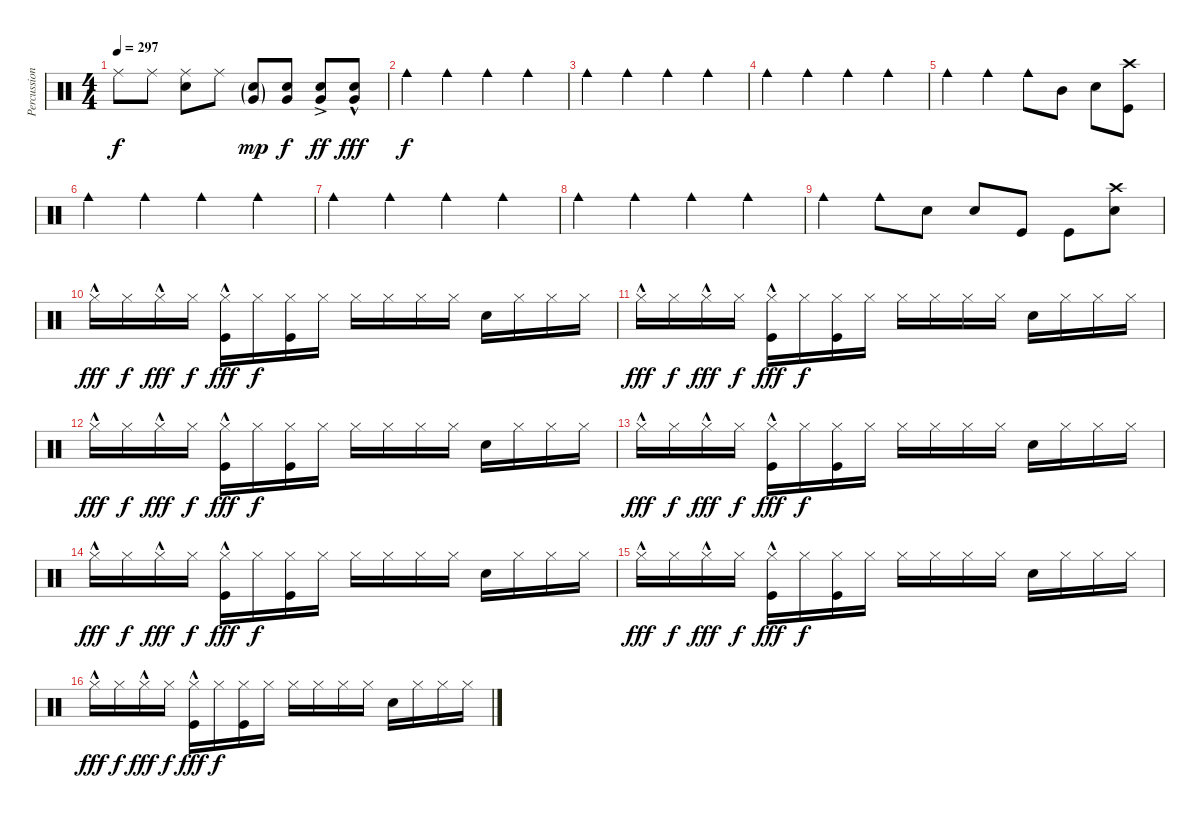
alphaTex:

\track ("Percussioni" "Percussion") {instrument percussion}
\staff {score}
\articulation defaults
\ts (4 4)
\tempo 297
\clef neutral
\ks c "Ride (middle)".8{dy f} "Ride (middle)".8
("Ride (middle)" "Snare (hit) 2").8 "Ride (middle)".8 ("Snare (hit) 2"{g} "Very Low Tom (hit)"{g}).8{dy mp} ("Snare (hit) 2" "Very Low Tom (hit)").8{dy f} ("Snare (hit) 2"{ac} "Very Low Tom (hit)"{ac}).8{dy ff} ("Snare (hit) 2"{hac} "Very Low Tom (hit)"{hac}).8{dy fff} |
"Cowbell medium (hit)".4{dy f} "Cowbell medium (hit)".4 "Cowbell medium (hit)".4 "Cowbell medium (hit)".4 |
"Cowbell medium (hit)".4 "Cowbell medium (hit)".4 "Cowbell medium (hit)".4 "Cowbell medium (hit)".4 |
"Cowbell medium (hit)".4 "Cowbell medium (hit)".4 "Cowbell medium (hit)".4 "Cowbell medium (hit)".4 |
"Cowbell medium (hit)".4 "Cowbell medium (hit)".4 "Cowbell medium (hit)".8 "Mid Tom (hit)".8 "Snare (hit) 2".8 ("Kick (hit)" "Crash high (hit)").8 |
"Cowbell medium (hit)".4 "Cowbell medium (hit)".4 "Cowbell medium (hit)".4 "Cowbell medium (hit)".4 |
"Cowbell medium (hit)".4 "Cowbell medium (hit)".4 "Cowbell medium (hit)".4 "Cowbell medium (hit)".4 |
"Cowbell medium (hit)".4 "Cowbell medium (hit)".4 "Cowbell medium (hit)".4 "Cowbell medium (hit)".4 |
"Cowbell medium (hit)".4 "Cowbell medium (hit)".8 "Snare (hit) 2".8 "Snare (hit) 2".8 "Kick (hit)".8 "Kick (hit)".8 ("Snare (hit) 2" "Crash high (hit)").8 |
"Hi-Hat (closed)"{hac}.16{dy fff} "Hi-Hat (closed)".16{dy f} "Hi-Hat (closed)"{hac}.16{dy fff} "Hi-Hat (closed)".16{dy f} ("Hi-Hat (closed)"{hac} "Kick (hit)").16{dy fff} "Hi-Hat (closed)".16{dy f} ("Hi-Hat (closed)" "Kick (hit)").16 "Hi-Hat (closed)".16 "Hi-Hat (closed)".16 "Hi-Hat (closed)".16 "Hi-Hat (closed)".16 "Hi-Hat (closed)".16 "Snare (hit) 2".16 "Hi-Hat (closed)".16 "Hi-Hat (closed)".16 "Hi-Hat (closed)".16 |
"Hi-Hat (closed)"{hac}.16{dy fff} "Hi-Hat (closed)".16{dy f} "Hi-Hat (closed)"{hac}.16{dy fff} "Hi-Hat (closed)".16{dy f} ("Hi-Hat (closed)"{hac} "Kick (hit)").16{dy fff} "Hi-Hat (closed)".16{dy f} ("Hi-Hat (closed)" "Kick (hit)").16 "Hi-Hat (closed)".16 "Hi-Hat (closed)".16 "Hi-Hat (closed)".16 "Hi-Hat (closed)".16 "Hi-Hat (closed)".16 "Snare (hit) 2".16 "Hi-Hat (closed)".16 "Hi-Hat (closed)".16 "Hi-Hat (closed)".16 |
"Hi-Hat (closed)"{hac}.16{dy fff} "Hi-Hat (closed)".16{dy f} "Hi-Hat (closed)"{hac}.16{dy fff} "Hi-Hat (closed)".16{dy f} ("Hi-Hat (closed)"{hac} "Kick (hit)").16{dy fff} "Hi-Hat (closed)".16{dy f} ("Hi-Hat (closed)" "Kick (hit)").16 "Hi-Hat (closed)".16 "Hi-Hat (closed)".16 "Hi-Hat (closed)".16 "Hi-Hat (closed)".16 "Hi-Hat (closed)".16 "Snare (hit) 2".16 "Hi-Hat (closed)".16 "Hi-Hat (closed)".16 "Hi-Hat (closed)".16 |
"Hi-Hat (closed)"{hac}.16{dy fff} "Hi-Hat (closed)".16{dy f} "Hi-Hat (closed)"{hac}.16{dy fff} "Hi-Hat (closed)".16{dy f} ("Hi-Hat (closed)"{hac} "Kick (hit)").16{dy fff} "Hi-Hat (closed)".16{dy f} ("Hi-Hat (closed)" "Kick (hit)").16 "Hi-Hat (closed)".16 "Hi-Hat (closed)".16 "Hi-Hat (closed)".16 "Hi-Hat (closed)".16 "Hi-Hat (closed)".16 "Snare (hit) 2".16 "Hi-Hat (closed)".16 "Hi-Hat (closed)".16 "Hi-Hat (closed)".16 |
"Hi-Hat (closed)"{hac}.16{dy fff} "Hi-Hat (closed)".16{dy f} "Hi-Hat (closed)"{hac}.16{dy fff} "Hi-Hat (closed)".16{dy f} ("Hi-Hat (closed)"{hac} "Kick (hit)").16{dy fff} "Hi-Hat (closed)".16{dy f} ("Hi-Hat (closed)" "Kick (hit)").16 "Hi-Hat (closed)".16 "Hi-Hat (closed)".16 "Hi-Hat (closed)".16 "Hi-Hat (closed)".16 "Hi-Hat (closed)".16 "Snare (hit) 2".16 "Hi-Hat (closed)".16 "Hi-Hat (closed)".16 "Hi-Hat (closed)".16 |
"Hi-Hat (closed)"{hac}.16{dy fff} "Hi-Hat (closed)".16{dy f} "Hi-Hat (closed)"{hac}.16{dy fff} "Hi-Hat (closed)".16{dy f} ("Hi-Hat (closed)"{hac} "Kick (hit)").16{dy fff} "Hi-Hat (closed)".16{dy f} ("Hi-Hat (closed)" "Kick (hit)").16 "Hi-Hat (closed)".16 "Hi-Hat (closed)".16 "Hi-Hat (closed)".16 "Hi-Hat (closed)".16 "Hi-Hat (closed)".16 "Snare (hit) 2".16 "Hi-Hat (closed)".16 "Hi-Hat (closed)".16 "Hi-Hat (closed)".16 |
"Hi-Hat (closed)"{hac}.16{dy fff} "Hi-Hat (closed)".16{dy f} "Hi-Hat (closed)"{hac}.16{dy fff} "Hi-Hat (closed)".16{dy f} ("Hi-Hat (closed)"{hac} "Kick (hit)").16{dy fff} "Hi-Hat (closed)".16{dy f} ("Hi-Hat (closed)" "Kick (hit)").16 "Hi-Hat (closed)".16 "Hi-Hat (closed)".16 "Hi-Hat (closed)".16 "Hi-Hat (closed)".16 "Hi-Hat (closed)".16 "Snare (hit) 2".16 "Hi-Hat (closed)".16 "Hi-Hat (closed)".16 "Hi-Hat (closed)".16
